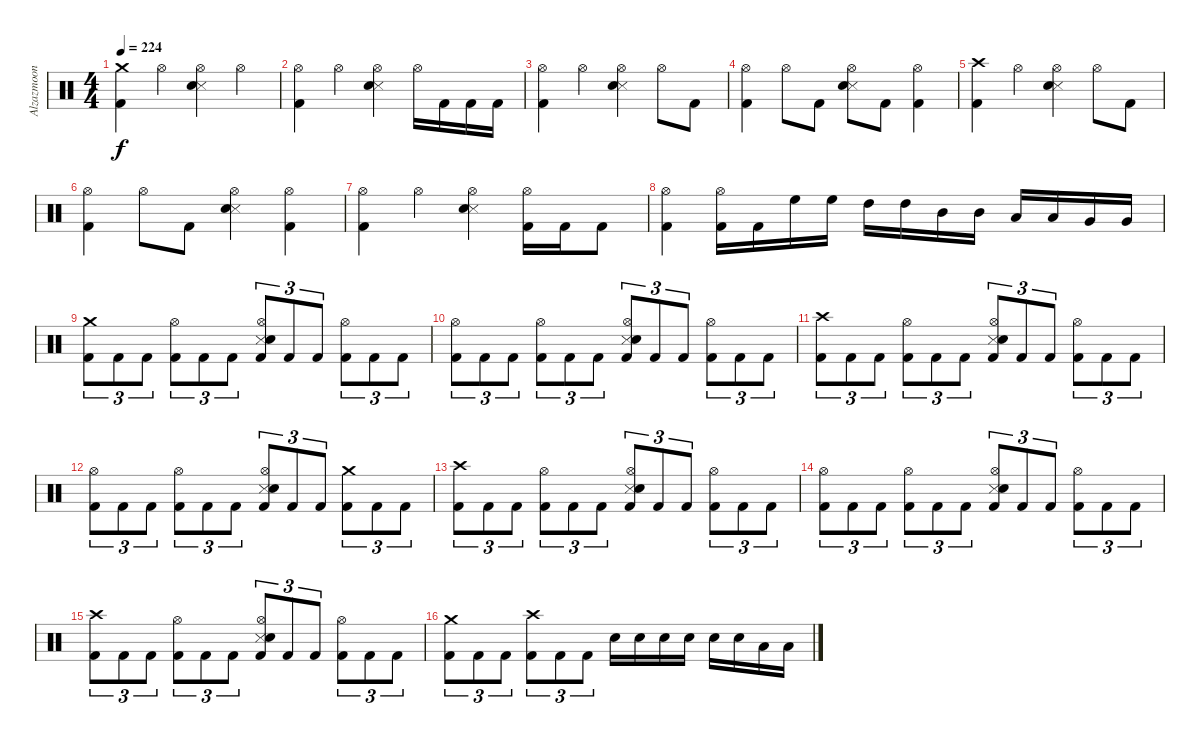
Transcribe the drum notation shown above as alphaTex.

\track ("Alzazmoon" "Alzazmoon") {instrument percussion}
\staff {score}
\articulation defaults
\ts (4 4)
\tempo 224
\clef neutral
\ks c
("Crash medium (hit)" "Kick (hit) 2").4{dy f} "Hi-Hat (open)".4 ("Hi-Hat (open)" "Snare (side stick) 3" "Snare (hit) 2").4 "Hi-Hat (open)".4 |
("Hi-Hat (open)" "Kick (hit) 2").4 "Hi-Hat (open)".4 ("Hi-Hat (open)" "Snare (side stick) 3" "Snare (hit) 2").4 "Hi-Hat (open)".16 "Kick (hit) 2".16 "Kick (hit) 2".16 "Kick (hit) 2".16 |
("Hi-Hat (open)" "Kick (hit) 2").4 "Hi-Hat (open)".4 ("Hi-Hat (open)" "Snare (side stick) 3" "Snare (hit) 2").4 "Hi-Hat (open)".8 "Kick (hit) 2".8 |
("Hi-Hat (open)" "Kick (hit) 2").4 "Hi-Hat (open)".8 "Kick (hit) 2".8 ("Hi-Hat (open)" "Snare (side stick) 3" "Snare (hit) 2").8 "Kick (hit) 2".8 ("Hi-Hat (open)" "Kick (hit) 2").4 |
("Crash high (hit)" "Kick (hit) 2").4 "Hi-Hat (open)".4 ("Hi-Hat (open)" "Snare (side stick) 3" "Snare (hit) 2").4 "Hi-Hat (open)".8 "Kick (hit) 2".8 |
("Hi-Hat (open)" "Kick (hit) 2").4 "Hi-Hat (open)".8 "Kick (hit) 2".8 ("Hi-Hat (open)" "Snare (side stick) 3" "Snare (hit) 2").4 ("Hi-Hat (open)" "Kick (hit) 2").4 |
("Hi-Hat (open)" "Kick (hit) 2").4 "Hi-Hat (open)".4 ("Hi-Hat (open)" "Snare (side stick) 3" "Snare (hit) 2").4 ("Hi-Hat (open)" "Kick (hit) 2").16 "Kick (hit) 2".16 "Kick (hit) 2".8 |
("Hi-Hat (open)" "Kick (hit) 2").4 ("Hi-Hat (open)" "Kick (hit) 2").16 "Kick (hit) 2".16 "High Floor Tom (hit)".16 "High Floor Tom (hit)".16 "High Tom (hit)".16 "High Tom (hit)".16 "Mid Tom (hit)".16 "Mid Tom (hit)".16 "Low Tom (hit)".16 "Low Tom (hit)".16 "Very Low Tom (hit)".16 "Very Low Tom (hit)".16 |
("Crash medium (hit)" "Kick (hit) 2").8{tu (3 2)} "Kick (hit) 2".8{tu (3 2)} "Kick (hit) 2".8{tu (3 2)} ("Hi-Hat (open)" "Kick (hit) 2").8{tu (3 2)} "Kick (hit) 2".8{tu (3 2)} "Kick (hit) 2".8{tu (3 2)} ("Hi-Hat (open)" "Snare (side stick) 3" "Snare (hit) 2" "Kick (hit) 2").8{tu (3 2)} "Kick (hit) 2".8{tu (3 2)} "Kick (hit) 2".8{tu (3 2)} ("Hi-Hat (open)" "Kick (hit) 2").8{tu (3 2)} "Kick (hit) 2".8{tu (3 2)} "Kick (hit) 2".8{tu (3 2)} |
("Hi-Hat (open)" "Kick (hit) 2").8{tu (3 2)} "Kick (hit) 2".8{tu (3 2)} "Kick (hit) 2".8{tu (3 2)} ("Hi-Hat (open)" "Kick (hit) 2").8{tu (3 2)} "Kick (hit) 2".8{tu (3 2)} "Kick (hit) 2".8{tu (3 2)} ("Hi-Hat (open)" "Snare (side stick) 3" "Snare (hit) 2" "Kick (hit) 2").8{tu (3 2)} "Kick (hit) 2".8{tu (3 2)} "Kick (hit) 2".8{tu (3 2)} ("Hi-Hat (open)" "Kick (hit) 2").8{tu (3 2)} "Kick (hit) 2".8{tu (3 2)} "Kick (hit) 2".8{tu (3 2)} |
("Crash high (hit)" "Kick (hit) 2").8{tu (3 2)} "Kick (hit) 2".8{tu (3 2)} "Kick (hit) 2".8{tu (3 2)} ("Hi-Hat (open)" "Kick (hit) 2").8{tu (3 2)} "Kick (hit) 2".8{tu (3 2)} "Kick (hit) 2".8{tu (3 2)} ("Hi-Hat (open)" "Snare (side stick) 3" "Snare (hit) 2" "Kick (hit) 2").8{tu (3 2)} "Kick (hit) 2".8{tu (3 2)} "Kick (hit) 2".8{tu (3 2)} ("Hi-Hat (open)" "Kick (hit) 2").8{tu (3 2)} "Kick (hit) 2".8{tu (3 2)} "Kick (hit) 2".8{tu (3 2)} |
("Hi-Hat (open)" "Kick (hit) 2").8{tu (3 2)} "Kick (hit) 2".8{tu (3 2)} "Kick (hit) 2".8{tu (3 2)} ("Hi-Hat (open)" "Kick (hit) 2").8{tu (3 2)} "Kick (hit) 2".8{tu (3 2)} "Kick (hit) 2".8{tu (3 2)} ("Hi-Hat (open)" "Snare (side stick) 3" "Snare (hit) 2" "Kick (hit) 2").8{tu (3 2)} "Kick (hit) 2".8{tu (3 2)} "Kick (hit) 2".8{tu (3 2)} ("Crash medium (hit)" "Kick (hit) 2").8{tu (3 2)} "Kick (hit) 2".8{tu (3 2)} "Kick (hit) 2".8{tu (3 2)} |
("Crash high (hit)" "Kick (hit) 2").8{tu (3 2)} "Kick (hit) 2".8{tu (3 2)} "Kick (hit) 2".8{tu (3 2)} ("Hi-Hat (open)" "Kick (hit) 2").8{tu (3 2)} "Kick (hit) 2".8{tu (3 2)} "Kick (hit) 2".8{tu (3 2)} ("Hi-Hat (open)" "Snare (side stick) 3" "Snare (hit) 2" "Kick (hit) 2").8{tu (3 2)} "Kick (hit) 2".8{tu (3 2)} "Kick (hit) 2".8{tu (3 2)} ("Hi-Hat (open)" "Kick (hit) 2").8{tu (3 2)} "Kick (hit) 2".8{tu (3 2)} "Kick (hit) 2".8{tu (3 2)} |
("Hi-Hat (open)" "Kick (hit) 2").8{tu (3 2)} "Kick (hit) 2".8{tu (3 2)} "Kick (hit) 2".8{tu (3 2)} ("Hi-Hat (open)" "Kick (hit) 2").8{tu (3 2)} "Kick (hit) 2".8{tu (3 2)} "Kick (hit) 2".8{tu (3 2)} ("Hi-Hat (open)" "Snare (side stick) 3" "Snare (hit) 2" "Kick (hit) 2").8{tu (3 2)} "Kick (hit) 2".8{tu (3 2)} "Kick (hit) 2".8{tu (3 2)} ("Hi-Hat (open)" "Kick (hit) 2").8{tu (3 2)} "Kick (hit) 2".8{tu (3 2)} "Kick (hit) 2".8{tu (3 2)} |
("Crash high (hit)" "Kick (hit) 2").8{tu (3 2)} "Kick (hit) 2".8{tu (3 2)} "Kick (hit) 2".8{tu (3 2)} ("Hi-Hat (open)" "Kick (hit) 2").8{tu (3 2)} "Kick (hit) 2".8{tu (3 2)} "Kick (hit) 2".8{tu (3 2)} ("Hi-Hat (open)" "Snare (side stick) 3" "Snare (hit) 2" "Kick (hit) 2").8{tu (3 2)} "Kick (hit) 2".8{tu (3 2)} "Kick (hit) 2".8{tu (3 2)} ("Hi-Hat (open)" "Kick (hit) 2").8{tu (3 2)} "Kick (hit) 2".8{tu (3 2)} "Kick (hit) 2".8{tu (3 2)} |
("Crash medium (hit)" "Kick (hit) 2").8{tu (3 2)} "Kick (hit) 2".8{tu (3 2)} "Kick (hit) 2".8{tu (3 2)} ("Crash high (hit)" "Kick (hit) 2").8{tu (3 2)} "Kick (hit) 2".8{tu (3 2)} "Kick (hit) 2".8{tu (3 2)} "Snare (hit) 2".16 "Snare (hit) 2".16 "Snare (hit) 2".16 "Snare (hit) 2".16 "Snare (hit) 2".16 "Snare (hit) 2".16 "Low Tom (hit)".16 "Low Tom (hit)".16
